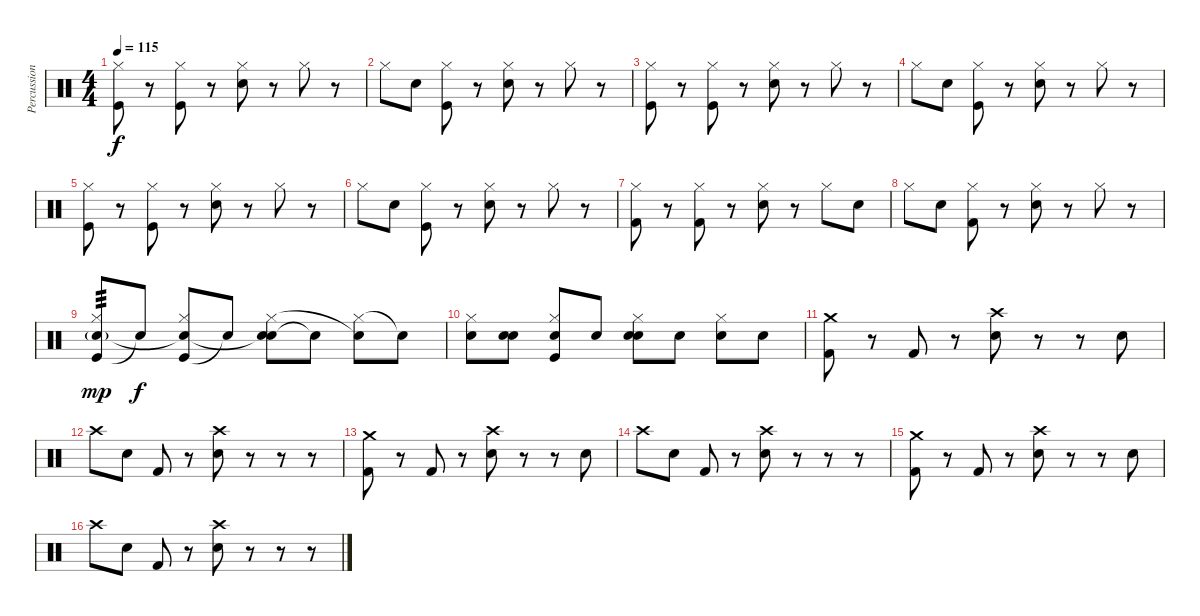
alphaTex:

\track ("Percussion" "Percussion") {instrument percussion}
\staff {score}
\articulation defaults
\ts (4 4)
\tempo 115
\clef neutral
\ks c
("Kick (hit)" "Hi-Hat (closed)").8{dy f} r.8 ("Kick (hit)" "Hi-Hat (closed)").8 r.8 ("Snare (hit) 2" "Hi-Hat (closed)").8 r.8 "Hi-Hat (closed)".8 r.8 |
"Hi-Hat (closed)".8 "Snare (hit) 2".8 ("Kick (hit)" "Hi-Hat (closed)").8 r.8 ("Snare (hit) 2" "Hi-Hat (closed)").8 r.8 "Hi-Hat (closed)".8 r.8 |
("Kick (hit)" "Hi-Hat (closed)").8 r.8 ("Kick (hit)" "Hi-Hat (closed)").8 r.8 ("Snare (hit) 2" "Hi-Hat (closed)").8 r.8 "Hi-Hat (closed)".8 r.8 |
"Hi-Hat (closed)".8 "Snare (hit) 2".8 ("Kick (hit)" "Hi-Hat (closed)").8 r.8 ("Snare (hit) 2" "Hi-Hat (closed)").8 r.8 "Hi-Hat (closed)".8 r.8 |
("Kick (hit)" "Hi-Hat (closed)").8 r.8 ("Kick (hit)" "Hi-Hat (closed)").8 r.8 ("Snare (hit) 2" "Hi-Hat (closed)").8 r.8 "Hi-Hat (closed)".8 r.8 |
"Hi-Hat (closed)".8 "Snare (hit) 2".8 ("Kick (hit)" "Hi-Hat (closed)").8 r.8 ("Snare (hit) 2" "Hi-Hat (closed)").8 r.8 "Hi-Hat (closed)".8 r.8 |
("Kick (hit) 2" "Hi-Hat (closed)").8 r.8 ("Kick (hit) 2" "Hi-Hat (closed)").8 r.8 ("Electric Snare (hit)" "Hi-Hat (closed)").8 r.8 "Hi-Hat (closed)".8 "Electric Snare (hit)".8 |
"Hi-Hat (closed)".8 "Electric Snare (hit)".8 ("Kick (hit) 2" "Hi-Hat (closed)").8 r.8 ("Electric Snare (hit)" "Hi-Hat (closed)").8 r.8 "Hi-Hat (closed)".8 r.8 |
("Kick (hit)" "Hi-Hat (closed)" "Electric Snare (hit)"{g}).8{tp 3 dy mp} "Snare (hit)"{t}.8{dy f} ("Kick (hit)" "Hi-Hat (closed)" "Snare (hit)"{t}).8 "Snare (hit)"{t}.8 ("Snare (hit) 2" "Hi-Hat (closed)" "Snare (hit)"{t}).8 "Snare (hit)"{t}.8 ("Hi-Hat (closed)" "Snare (hit)"{t}).8 "Snare (hit)"{t}.8 |
("Hi-Hat (closed)" "Electric Snare (hit)").8 ("Snare (hit) 2" "Electric Snare (hit)").8 ("Kick (hit)" "Hi-Hat (closed)" "Electric Snare (hit)").8 "Electric Snare (hit)".8 ("Snare (hit) 2" "Hi-Hat (closed)" "Electric Snare (hit)").8 "Electric Snare (hit)".8 ("Hi-Hat (closed)" "Electric Snare (hit)").8 "Electric Snare (hit)".8 |
("Kick (hit) 2" "Crash medium (hit)").8 r.8 "Kick (hit) 2".8 r.8 ("Electric Snare (hit)" "Crash high (hit)").8 r.8 r.8 "Electric Snare (hit)".8 |
"Crash high (hit)".8 "Electric Snare (hit)".8 "Kick (hit) 2".8 r.8 ("Electric Snare (hit)" "Crash high (hit)").8 r.8 r.8 r.8 |
("Kick (hit) 2" "Crash medium (hit)").8 r.8 "Kick (hit) 2".8 r.8 ("Electric Snare (hit)" "Crash high (hit)").8 r.8 r.8 "Electric Snare (hit)".8 |
"Crash high (hit)".8 "Electric Snare (hit)".8 "Kick (hit) 2".8 r.8 ("Electric Snare (hit)" "Crash high (hit)").8 r.8 r.8 r.8 |
("Kick (hit) 2" "Crash medium (hit)").8 r.8 "Kick (hit) 2".8 r.8 ("Electric Snare (hit)" "Crash high (hit)").8 r.8 r.8 "Electric Snare (hit)".8 |
"Crash high (hit)".8 "Electric Snare (hit)".8 "Kick (hit) 2".8 r.8 ("Electric Snare (hit)" "Crash high (hit)").8 r.8 r.8 r.8
